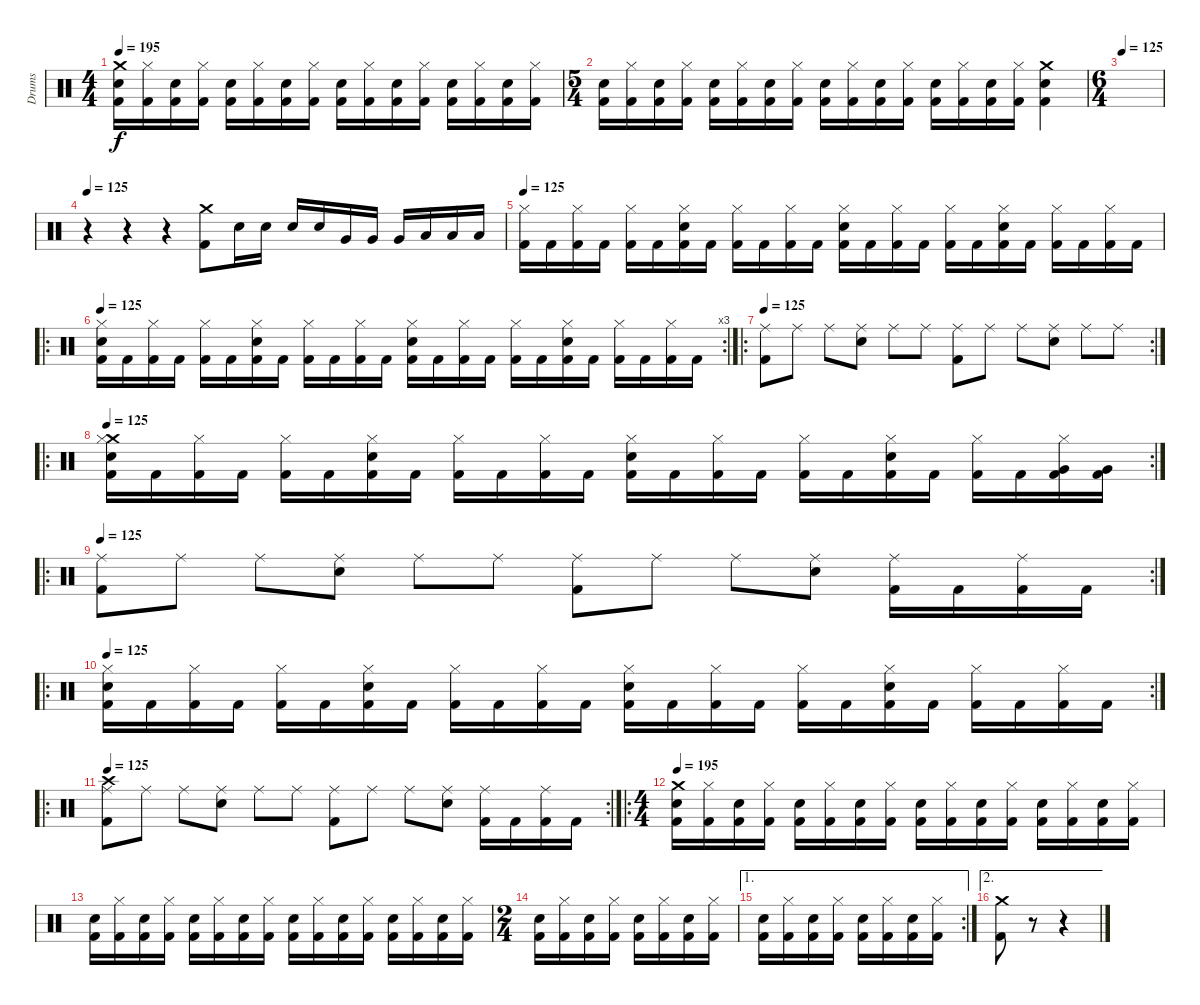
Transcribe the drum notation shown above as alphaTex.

\track ("Drums" "Drums") {instrument percussion}
\staff {score}
\articulation defaults
\ts (4 4)
\tempo 195
\clef neutral
\ks c
("Crash medium (hit)" "Kick (hit) 2" "Snare (hit) 2").16{dy f} ("Hi-Hat (closed)" "Kick (hit) 2").16 ("Kick (hit) 2" "Snare (hit) 2").16 ("Hi-Hat (closed)" "Kick (hit) 2").16 ("Kick (hit) 2" "Snare (hit) 2").16 ("Hi-Hat (closed)" "Kick (hit) 2").16 ("Kick (hit) 2" "Snare (hit) 2").16 ("Hi-Hat (closed)" "Kick (hit) 2").16 ("Kick (hit) 2" "Snare (hit) 2").16 ("Hi-Hat (closed)" "Kick (hit) 2").16 ("Kick (hit) 2" "Snare (hit) 2").16 ("Hi-Hat (closed)" "Kick (hit) 2").16 ("Kick (hit) 2" "Snare (hit) 2").16 ("Hi-Hat (closed)" "Kick (hit) 2").16 ("Kick (hit) 2" "Snare (hit) 2").16 ("Hi-Hat (closed)" "Kick (hit) 2").16 |
\ts (5 4)
("Kick (hit) 2" "Snare (hit) 2").16 ("Hi-Hat (closed)" "Kick (hit) 2").16 ("Kick (hit) 2" "Snare (hit) 2").16 ("Hi-Hat (closed)" "Kick (hit) 2").16 ("Kick (hit) 2" "Snare (hit) 2").16 ("Hi-Hat (closed)" "Kick (hit) 2").16 ("Kick (hit) 2" "Snare (hit) 2").16 ("Hi-Hat (closed)" "Kick (hit) 2").16 ("Kick (hit) 2" "Snare (hit) 2").16 ("Hi-Hat (closed)" "Kick (hit) 2").16 ("Kick (hit) 2" "Snare (hit) 2").16 ("Hi-Hat (closed)" "Kick (hit) 2").16 ("Kick (hit) 2" "Snare (hit) 2").16 ("Hi-Hat (closed)" "Kick (hit) 2").16 ("Kick (hit) 2" "Snare (hit) 2").16 ("Hi-Hat (closed)" "Kick (hit) 2").16 ("Crash medium (hit)" "Kick (hit) 2" "Snare (hit) 2").4 |
\ts (6 4)
\tempo 125
|
\tempo 125
r.4 r.4 r.4 ("Crash medium (hit)" "Kick (hit) 2").8 "Snare (hit) 2".16 "Snare (hit) 2".16 "Snare (hit) 2".16 "Snare (hit) 2".16 "Very Low Tom (hit)".16 "Very Low Tom (hit)".16 "Very Low Tom (hit)".16 "Low Floor Tom (hit)".16 "Low Floor Tom (hit)".16 "Low Floor Tom (hit)".16 |
\tempo 125
("Hi-Hat (closed)" "Kick (hit) 2").16 "Kick (hit) 2".16 ("Hi-Hat (closed)" "Kick (hit) 2").16 "Kick (hit) 2".16 ("Hi-Hat (closed)" "Kick (hit) 2").16 "Kick (hit) 2".16 ("Hi-Hat (closed)" "Snare (hit) 2" "Kick (hit) 2").16 "Kick (hit) 2".16 ("Hi-Hat (closed)" "Kick (hit) 2").16 "Kick (hit) 2".16 ("Hi-Hat (closed)" "Kick (hit) 2").16 "Kick (hit) 2".16 ("Hi-Hat (closed)" "Snare (hit) 2" "Kick (hit) 2").16 "Kick (hit) 2".16 ("Hi-Hat (closed)" "Kick (hit) 2").16 "Kick (hit) 2".16 ("Hi-Hat (closed)" "Kick (hit) 2").16 "Kick (hit) 2".16 ("Hi-Hat (closed)" "Snare (hit) 2" "Kick (hit) 2").16 "Kick (hit) 2".16 ("Hi-Hat (closed)" "Kick (hit) 2").16 "Kick (hit) 2".16 ("Hi-Hat (closed)" "Kick (hit) 2").16 "Kick (hit) 2".16 |
\ro
\rc 3
\tempo 125
("Hi-Hat (closed)" "Snare (hit) 2" "Kick (hit) 2").16 "Kick (hit) 2".16 ("Hi-Hat (closed)" "Kick (hit) 2").16 "Kick (hit) 2".16 ("Hi-Hat (closed)" "Kick (hit) 2").16 "Kick (hit) 2".16 ("Hi-Hat (closed)" "Snare (hit) 2" "Kick (hit) 2").16 "Kick (hit) 2".16 ("Hi-Hat (closed)" "Kick (hit) 2").16 "Kick (hit) 2".16 ("Hi-Hat (closed)" "Kick (hit) 2").16 "Kick (hit) 2".16 ("Hi-Hat (closed)" "Snare (hit) 2" "Kick (hit) 2").16 "Kick (hit) 2".16 ("Hi-Hat (closed)" "Kick (hit) 2").16 "Kick (hit) 2".16 ("Hi-Hat (closed)" "Kick (hit) 2").16 "Kick (hit) 2".16 ("Hi-Hat (closed)" "Snare (hit) 2" "Kick (hit) 2").16 "Kick (hit) 2".16 ("Hi-Hat (closed)" "Kick (hit) 2").16 "Kick (hit) 2".16 ("Hi-Hat (closed)" "Kick (hit) 2").16 "Kick (hit) 2".16 |
\ro
\rc 2
\tempo 125
("Ride (middle)" "Kick (hit) 2").8 "Ride (middle)".8 "Ride (middle)".8 ("Ride (middle)" "Snare (hit) 2").8 "Ride (middle)".8 "Ride (middle)".8 ("Ride (middle)" "Kick (hit) 2").8 "Ride (middle)".8 "Ride (middle)".8 ("Ride (middle)" "Snare (hit) 2").8 "Ride (middle)".8 "Ride (middle)".8 |
\ro
\rc 2
\tempo 125
("Crash medium (hit)" "Hi-Hat (closed)" "Snare (hit) 2" "Kick (hit) 2").16 "Kick (hit) 2".16 ("Hi-Hat (closed)" "Kick (hit) 2").16 "Kick (hit) 2".16 ("Hi-Hat (closed)" "Kick (hit) 2").16 "Kick (hit) 2".16 ("Hi-Hat (closed)" "Snare (hit) 2" "Kick (hit) 2").16 "Kick (hit) 2".16 ("Hi-Hat (closed)" "Kick (hit) 2").16 "Kick (hit) 2".16 ("Hi-Hat (closed)" "Kick (hit) 2").16 "Kick (hit) 2".16 ("Hi-Hat (closed)" "Snare (hit) 2" "Kick (hit) 2").16 "Kick (hit) 2".16 ("Hi-Hat (closed)" "Kick (hit) 2").16 "Kick (hit) 2".16 ("Hi-Hat (closed)" "Kick (hit) 2").16 "Kick (hit) 2".16 ("Hi-Hat (closed)" "Snare (hit) 2" "Kick (hit) 2").16 "Kick (hit) 2".16 ("Hi-Hat (closed)" "Kick (hit) 2").16 "Kick (hit) 2".16 ("Hi-Hat (closed)" "Very Low Tom (hit)" "Kick (hit) 2").16 ("Very Low Tom (hit)" "Kick (hit) 2").16 |
\ro
\rc 2
\tempo 125
("Ride (middle)" "Kick (hit) 2").8 "Ride (middle)".8 "Ride (middle)".8 ("Ride (middle)" "Snare (hit) 2").8 "Ride (middle)".8 "Ride (middle)".8 ("Ride (middle)" "Kick (hit) 2").8 "Ride (middle)".8 "Ride (middle)".8 ("Ride (middle)" "Snare (hit) 2").8 ("Ride (middle)" "Kick (hit) 2").16 "Kick (hit) 2".16 ("Ride (middle)" "Kick (hit) 2").16 "Kick (hit) 2".16 |
\ro
\rc 2
\tempo 125
("Hi-Hat (closed)" "Snare (hit) 2" "Kick (hit) 2").16 "Kick (hit) 2".16 ("Hi-Hat (closed)" "Kick (hit) 2").16 "Kick (hit) 2".16 ("Hi-Hat (closed)" "Kick (hit) 2").16 "Kick (hit) 2".16 ("Hi-Hat (closed)" "Snare (hit) 2" "Kick (hit) 2").16 "Kick (hit) 2".16 ("Hi-Hat (closed)" "Kick (hit) 2").16 "Kick (hit) 2".16 ("Hi-Hat (closed)" "Kick (hit) 2").16 "Kick (hit) 2".16 ("Hi-Hat (closed)" "Snare (hit) 2" "Kick (hit) 2").16 "Kick (hit) 2".16 ("Hi-Hat (closed)" "Kick (hit) 2").16 "Kick (hit) 2".16 ("Hi-Hat (closed)" "Kick (hit) 2").16 "Kick (hit) 2".16 ("Hi-Hat (closed)" "Snare (hit) 2" "Kick (hit) 2").16 "Kick (hit) 2".16 ("Hi-Hat (closed)" "Kick (hit) 2").16 "Kick (hit) 2".16 ("Hi-Hat (closed)" "Kick (hit) 2").16 "Kick (hit) 2".16 |
\ro
\rc 2
\tempo 125
("Crash high (hit)" "Ride (middle)" "Kick (hit) 2").8 "Ride (middle)".8 "Ride (middle)".8 ("Ride (middle)" "Snare (hit) 2").8 "Ride (middle)".8 "Ride (middle)".8 ("Ride (middle)" "Kick (hit) 2").8 "Ride (middle)".8 "Ride (middle)".8 ("Ride (middle)" "Snare (hit) 2").8 ("Ride (middle)" "Kick (hit) 2").16 "Kick (hit) 2".16 ("Ride (middle)" "Kick (hit) 2").16 "Kick (hit) 2".16 |
\ro
\ts (4 4)
\tempo 195
("Crash medium (hit)" "Kick (hit) 2" "Snare (hit) 2").16 ("Hi-Hat (closed)" "Kick (hit) 2").16 ("Kick (hit) 2" "Snare (hit) 2").16 ("Hi-Hat (closed)" "Kick (hit) 2").16 ("Kick (hit) 2" "Snare (hit) 2").16 ("Hi-Hat (closed)" "Kick (hit) 2").16 ("Kick (hit) 2" "Snare (hit) 2").16 ("Hi-Hat (closed)" "Kick (hit) 2").16 ("Kick (hit) 2" "Snare (hit) 2").16 ("Hi-Hat (closed)" "Kick (hit) 2").16 ("Kick (hit) 2" "Snare (hit) 2").16 ("Hi-Hat (closed)" "Kick (hit) 2").16 ("Kick (hit) 2" "Snare (hit) 2").16 ("Hi-Hat (closed)" "Kick (hit) 2").16 ("Kick (hit) 2" "Snare (hit) 2").16 ("Hi-Hat (closed)" "Kick (hit) 2").16 |
("Kick (hit) 2" "Snare (hit) 2").16 ("Hi-Hat (closed)" "Kick (hit) 2").16 ("Kick (hit) 2" "Snare (hit) 2").16 ("Hi-Hat (closed)" "Kick (hit) 2").16 ("Kick (hit) 2" "Snare (hit) 2").16 ("Hi-Hat (closed)" "Kick (hit) 2").16 ("Kick (hit) 2" "Snare (hit) 2").16 ("Hi-Hat (closed)" "Kick (hit) 2").16 ("Kick (hit) 2" "Snare (hit) 2").16 ("Hi-Hat (closed)" "Kick (hit) 2").16 ("Kick (hit) 2" "Snare (hit) 2").16 ("Hi-Hat (closed)" "Kick (hit) 2").16 ("Kick (hit) 2" "Snare (hit) 2").16 ("Hi-Hat (closed)" "Kick (hit) 2").16 ("Kick (hit) 2" "Snare (hit) 2").16 ("Hi-Hat (closed)" "Kick (hit) 2").16 |
\ts (2 4)
("Kick (hit) 2" "Snare (hit) 2").16 ("Hi-Hat (closed)" "Kick (hit) 2").16 ("Kick (hit) 2" "Snare (hit) 2").16 ("Hi-Hat (closed)" "Kick (hit) 2").16 ("Kick (hit) 2" "Snare (hit) 2").16 ("Hi-Hat (closed)" "Kick (hit) 2").16 ("Kick (hit) 2" "Snare (hit) 2").16 ("Hi-Hat (closed)" "Kick (hit) 2").16 |
\ae 1
\rc 2
("Kick (hit) 2" "Snare (hit) 2").16 ("Hi-Hat (closed)" "Kick (hit) 2").16 ("Kick (hit) 2" "Snare (hit) 2").16 ("Hi-Hat (closed)" "Kick (hit) 2").16 ("Kick (hit) 2" "Snare (hit) 2").16 ("Hi-Hat (closed)" "Kick (hit) 2").16 ("Kick (hit) 2" "Snare (hit) 2").16 ("Hi-Hat (closed)" "Kick (hit) 2").16 |
\ae 2
("Crash medium (hit)" "Kick (hit) 2").8 r.8 r.4
